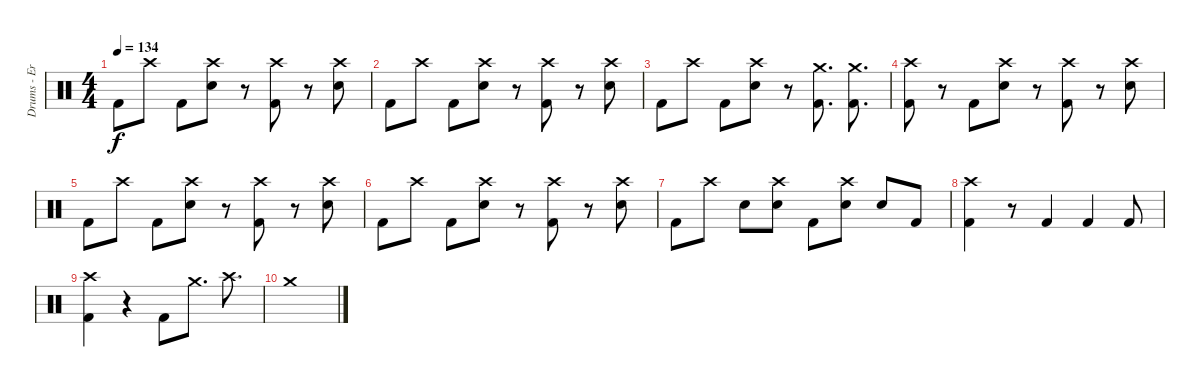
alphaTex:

\track ("Drums - Eric Young" "Drums - Er") {instrument percussion}
\staff {score}
\articulation defaults
\ts (4 4)
\tempo 134
\clef neutral
\ks c "Kick (hit) 2".8{dy f} "Crash high (hit)".8 "Kick (hit) 2".8
("Crash high (hit)" "Electric Snare (hit)").8 r.8 ("Crash high (hit)" "Kick (hit) 2").8 r.8 ("Crash high (hit)" "Electric Snare (hit)").8 |
"Kick (hit) 2".8 "Crash high (hit)".8 "Kick (hit) 2".8 ("Crash high (hit)" "Electric Snare (hit)").8 r.8 ("Crash high (hit)" "Kick (hit) 2").8 r.8 ("Crash high (hit)" "Electric Snare (hit)").8 |
"Kick (hit) 2".8 "Crash high (hit)".8 "Kick (hit) 2".8 ("Crash high (hit)" "Electric Snare (hit)").8 r.8 ("Crash medium (hit)" "Kick (hit) 2").8{d} ("Crash medium (hit)" "Kick (hit) 2").8{d} |
("Crash high (hit)" "Kick (hit) 2").8 r.8 "Kick (hit) 2".8 ("Crash high (hit)" "Electric Snare (hit)").8 r.8 ("Crash high (hit)" "Kick (hit) 2").8 r.8 ("Crash high (hit)" "Electric Snare (hit)").8 |
"Kick (hit) 2".8 "Crash high (hit)".8 "Kick (hit) 2".8 ("Crash high (hit)" "Electric Snare (hit)").8 r.8 ("Crash high (hit)" "Kick (hit) 2").8 r.8 ("Crash high (hit)" "Electric Snare (hit)").8 |
"Kick (hit) 2".8 "Crash high (hit)".8 "Kick (hit) 2".8 ("Crash high (hit)" "Electric Snare (hit)").8 r.8 ("Crash high (hit)" "Kick (hit) 2").8 r.8 ("Crash high (hit)" "Electric Snare (hit)").8 |
"Kick (hit) 2".8 "Crash high (hit)".8 "Electric Snare (hit)".8 ("Crash high (hit)" "Electric Snare (hit)").8 "Kick (hit) 2".8 ("Crash high (hit)" "Electric Snare (hit)").8 "Electric Snare (hit)".8 "Kick (hit) 2".8 |
("Crash high (hit)" "Kick (hit) 2").4 r.8 "Kick (hit) 2".4 "Kick (hit) 2".4 "Kick (hit) 2".8 |
("Crash high (hit)" "Kick (hit) 2").4 r.4 "Kick (hit) 2".8 "Crash medium (hit)".8{d} "Crash high (hit)".8{d} |
"Crash medium (hit)".1
